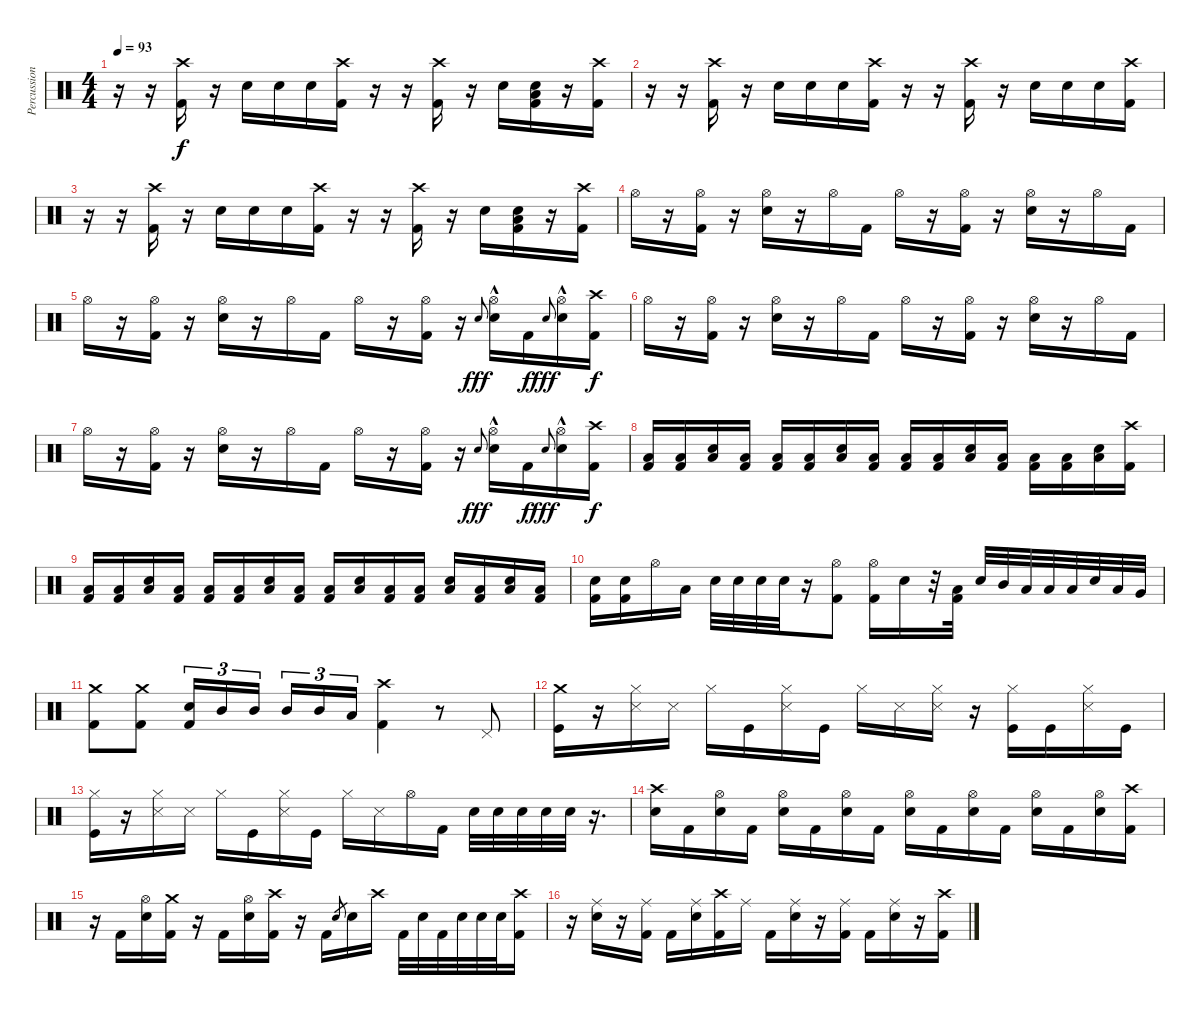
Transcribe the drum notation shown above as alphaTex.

\track ("Percussion" "Percussion") {instrument percussion}
\staff {score}
\articulation defaults
\ts (4 4)
\tempo 93
\clef neutral
\ks c
r.16{dy f} r.16 ("Crash high (hit)" "Kick (hit) 2").16 r.16 "Electric Snare (hit)".16 "Electric Snare (hit)".16 "Electric Snare (hit)".16 ("Crash high (hit)" "Kick (hit) 2").16 r.16 r.16 ("Crash high (hit)" "Kick (hit) 2").16 r.16 "Electric Snare (hit)".16 ("Low Floor Tom (hit)" "Electric Snare (hit)" "Kick (hit) 2").16 r.16 ("Crash high (hit)" "Kick (hit) 2").16 |
r.16 r.16 ("Crash high (hit)" "Kick (hit) 2").16 r.16 "Electric Snare (hit)".16 "Electric Snare (hit)".16 "Electric Snare (hit)".16 ("Crash high (hit)" "Kick (hit) 2").16 r.16 r.16 ("Crash high (hit)" "Kick (hit) 2").16 r.16 "Electric Snare (hit)".16 "Electric Snare (hit)".16 "Electric Snare (hit)".16 ("Crash high (hit)" "Kick (hit) 2").16 |
r.16 r.16 ("Crash high (hit)" "Kick (hit) 2").16 r.16 "Electric Snare (hit)".16 "Electric Snare (hit)".16 "Electric Snare (hit)".16 ("Crash high (hit)" "Kick (hit) 2").16 r.16 r.16 ("Crash high (hit)" "Kick (hit) 2").16 r.16 "Electric Snare (hit)".16 ("Low Floor Tom (hit)" "Electric Snare (hit)" "Kick (hit) 2").16 r.16 ("Crash high (hit)" "Kick (hit) 2").16 |
"Hi-Hat (open)".16 r.16 ("Hi-Hat (open)" "Kick (hit) 2").16 r.16 ("Hi-Hat (open)" "Electric Snare (hit)").16 r.16 "Hi-Hat (open)".16 "Kick (hit) 2".16 "Hi-Hat (open)".16 r.16 ("Hi-Hat (open)" "Kick (hit) 2").16 r.16 ("Hi-Hat (open)" "Electric Snare (hit)").16 r.16 "Hi-Hat (open)".16 "Kick (hit) 2".16 |
"Hi-Hat (open)".16 r.16 ("Hi-Hat (open)" "Kick (hit) 2").16 r.16 ("Hi-Hat (open)" "Electric Snare (hit)").16 r.16 "Hi-Hat (open)".16 "Kick (hit) 2".16 "Hi-Hat (open)".16 r.16 ("Hi-Hat (open)" "Kick (hit) 2").16 r.16 "Electric Snare (hit)".8{gr onbeat dy fff} ("Hi-Hat (open)" "Electric Snare (hit)"{hac}).16 "Kick (hit) 2".16{dy f} "Electric Snare (hit)".8{gr onbeat dy fff} ("Hi-Hat (open)" "Electric Snare (hit)"{hac}).16 ("Crash high (hit)" "Kick (hit) 2").16{dy f} |
"Hi-Hat (open)".16 r.16 ("Hi-Hat (open)" "Kick (hit) 2").16 r.16 ("Hi-Hat (open)" "Electric Snare (hit)").16 r.16 "Hi-Hat (open)".16 "Kick (hit) 2".16 "Hi-Hat (open)".16 r.16 ("Hi-Hat (open)" "Kick (hit) 2").16 r.16 ("Hi-Hat (open)" "Electric Snare (hit)").16 r.16 "Hi-Hat (open)".16 "Kick (hit) 2".16 |
"Hi-Hat (open)".16 r.16 ("Hi-Hat (open)" "Kick (hit) 2").16 r.16 ("Hi-Hat (open)" "Electric Snare (hit)").16 r.16 "Hi-Hat (open)".16 "Kick (hit) 2".16 "Hi-Hat (open)".16 r.16 ("Hi-Hat (open)" "Kick (hit) 2").16 r.16 "Electric Snare (hit)".8{gr onbeat dy fff} ("Hi-Hat (open)" "Electric Snare (hit)"{hac}).16 "Kick (hit) 2".16{dy f} "Electric Snare (hit)".8{gr onbeat dy fff} ("Hi-Hat (open)" "Electric Snare (hit)"{hac}).16 ("Crash high (hit)" "Kick (hit) 2").16{dy f} |
("Low Floor Tom (hit)" "Kick (hit) 2").16 ("Low Floor Tom (hit)" "Kick (hit) 2").16 ("Low Floor Tom (hit)" "Electric Snare (hit)").16 ("Low Floor Tom (hit)" "Kick (hit) 2").16 ("Low Floor Tom (hit)" "Kick (hit) 2").16 ("Low Floor Tom (hit)" "Kick (hit) 2").16 ("Low Floor Tom (hit)" "Electric Snare (hit)").16 ("Low Floor Tom (hit)" "Kick (hit) 2").16 ("Low Floor Tom (hit)" "Kick (hit) 2").16 ("Low Floor Tom (hit)" "Kick (hit) 2").16 ("Low Floor Tom (hit)" "Electric Snare (hit)").16 ("Low Floor Tom (hit)" "Kick (hit) 2").16 ("Low Floor Tom (hit)" "Kick (hit) 2").16 ("Low Floor Tom (hit)" "Kick (hit) 2").16 ("Low Floor Tom (hit)" "Electric Snare (hit)").16 ("Crash high (hit)" "Kick (hit) 2").16 |
("Low Floor Tom (hit)" "Kick (hit) 2").16 ("Low Floor Tom (hit)" "Kick (hit) 2").16 ("Low Floor Tom (hit)" "Electric Snare (hit)").16 ("Low Floor Tom (hit)" "Kick (hit) 2").16 ("Low Floor Tom (hit)" "Kick (hit) 2").16 ("Low Floor Tom (hit)" "Kick (hit) 2").16 ("Low Floor Tom (hit)" "Electric Snare (hit)").16 ("Low Floor Tom (hit)" "Kick (hit) 2").16 ("Low Floor Tom (hit)" "Kick (hit) 2").16 ("Low Floor Tom (hit)" "Electric Snare (hit)").16 ("Low Floor Tom (hit)" "Kick (hit) 2").16 ("Low Floor Tom (hit)" "Kick (hit) 2").16 ("Low Floor Tom (hit)" "Electric Snare (hit)").16 ("Low Floor Tom (hit)" "Kick (hit) 2").16 ("Low Floor Tom (hit)" "Electric Snare (hit)").16 ("Low Floor Tom (hit)" "Kick (hit) 2").16 |
("Electric Snare (hit)" "Kick (hit) 2").16 ("Electric Snare (hit)" "Kick (hit) 2").16 "Hi-Hat (open)".16 "Low Tom (hit)".16 "Electric Snare (hit)".32 "Electric Snare (hit)".32 "Electric Snare (hit)".32 "Electric Snare (hit)".32 r.16 ("Hi-Hat (open)" "Kick (hit) 2").8 ("Hi-Hat (open)" "Kick (hit) 2").16 "Electric Snare (hit)".16 r.32 ("Low Tom (hit)" "Kick (hit) 2").32 "Electric Snare (hit)".32 "Mid Tom (hit)".32 "Low Tom (hit)".32 "Low Tom (hit)".32 "Low Tom (hit)".32 "Electric Snare (hit)".32 "Low Tom (hit)".32 "Very Low Tom (hit)".32 |
("Crash medium (hit)" "Kick (hit) 2").8 ("Crash medium (hit)" "Kick (hit) 2").8 ("Electric Snare (hit)" "Kick (hit) 2").16{tu (3 2)} "Mid Tom (hit)".16{tu (3 2)} "Mid Tom (hit)".16{tu (3 2) beam splitsecondary} "Mid Tom (hit)".16{tu (3 2)} "Mid Tom (hit)".16{tu (3 2)} "Low Tom (hit)".16{tu (3 2)} ("Crash high (hit)" "Kick (hit) 2").4 r.8 "Pedal Hi-Hat (hit)".8 |
("Crash medium (hit)" "Kick (hit)").16 r.16 ("Hi-Hat (closed)" "Snare (side stick) 3").16 "Snare (side stick) 3".16 "Hi-Hat (closed)".16 "Kick (hit)".16 ("Hi-Hat (closed)" "Snare (side stick) 3").16 "Kick (hit)".16 "Hi-Hat (closed)".16 "Snare (side stick) 3".16 ("Hi-Hat (closed)" "Snare (side stick) 3").16 r.16 ("Hi-Hat (closed)" "Kick (hit)").16 "Kick (hit)".16 ("Hi-Hat (closed)" "Snare (side stick) 3").16 "Kick (hit)".16 |
("Hi-Hat (closed)" "Kick (hit)").16 r.16 ("Hi-Hat (closed)" "Snare (side stick) 3").16 "Snare (side stick) 3".16 "Hi-Hat (closed)".16 "Kick (hit)".16 ("Hi-Hat (closed)" "Snare (side stick) 3").16 "Kick (hit)".16 "Hi-Hat (closed)".16 "Snare (side stick) 3".16 "Hi-Hat (open)".16 "Kick (hit) 2".16 "Electric Snare (hit)".32 "Electric Snare (hit)".32 "Electric Snare (hit)".32 "Electric Snare (hit)".32 "Electric Snare (hit)".32 r.16{d} |
("Crash high (hit)" "Electric Snare (hit)").16 "Kick (hit) 2".16 ("Hi-Hat (open)" "Electric Snare (hit)").16 "Kick (hit) 2".16 ("Hi-Hat (open)" "Electric Snare (hit)").16 "Kick (hit) 2".16 ("Hi-Hat (open)" "Electric Snare (hit)").16 "Kick (hit) 2".16 ("Hi-Hat (open)" "Electric Snare (hit)").16 "Kick (hit) 2".16 ("Hi-Hat (open)" "Electric Snare (hit)").16 "Kick (hit) 2".16 ("Hi-Hat (open)" "Electric Snare (hit)").16 "Kick (hit) 2".16 ("Hi-Hat (open)" "Electric Snare (hit)").16 ("Crash high (hit)" "Kick (hit) 2").16 |
r.16 "Kick (hit) 2".16 ("Hi-Hat (open)" "Electric Snare (hit)").16 ("Crash medium (hit)" "Kick (hit) 2").16 r.16 "Kick (hit) 2".16 ("Hi-Hat (open)" "Electric Snare (hit)").16 ("Crash high (hit)" "Kick (hit) 2").16 r.16 "Kick (hit) 2".16 "Electric Snare (hit)".8{gr} "Electric Snare (hit)".16 "Crash high (hit)".16 "Kick (hit) 2".32 "Electric Snare (hit)".32 "Kick (hit) 2".32 "Electric Snare (hit)".32 "Electric Snare (hit)".32 "Electric Snare (hit)".32 ("Crash high (hit)" "Kick (hit) 2").16 |
r.16 ("Ride (middle)" "Electric Snare (hit)").16 r.16 ("Ride (middle)" "Kick (hit) 2").16 "Kick (hit) 2".16 ("Ride (middle)" "Electric Snare (hit)").16 ("Crash high (hit)" "Kick (hit) 2").16 "Ride (middle)".16 "Kick (hit) 2".16 ("Ride (middle)" "Electric Snare (hit)").16 r.16 ("Ride (middle)" "Kick (hit) 2").16 "Kick (hit) 2".16 ("Ride (middle)" "Electric Snare (hit)").16 r.16 ("Crash high (hit)" "Kick (hit) 2").16
